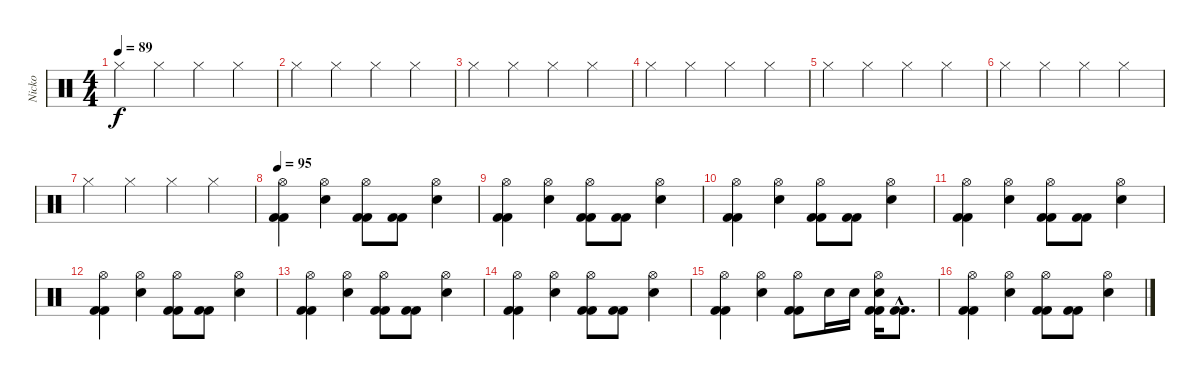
\track ("Nicko " "Nicko ") {instrument percussion}
\staff {score}
\articulation defaults
\ts (4 4)
\tempo 89
\clef neutral
\ks c "Hi-Hat (closed)".4{dy f} "Hi-Hat (closed)".4 "Hi-Hat (closed)".4 "Hi-Hat (closed)".4
|
"Hi-Hat (closed)".4 "Hi-Hat (closed)".4 "Hi-Hat (closed)".4 "Hi-Hat (closed)".4 |
"Hi-Hat (closed)".4 "Hi-Hat (closed)".4 "Hi-Hat (closed)".4 "Hi-Hat (closed)".4 |
"Hi-Hat (closed)".4 "Hi-Hat (closed)".4 "Hi-Hat (closed)".4 "Hi-Hat (closed)".4 |
"Hi-Hat (closed)".4 "Hi-Hat (closed)".4 "Hi-Hat (closed)".4 "Hi-Hat (closed)".4 |
"Hi-Hat (closed)".4 "Hi-Hat (closed)".4 "Hi-Hat (closed)".4 "Hi-Hat (closed)".4 |
"Hi-Hat (closed)".4 "Hi-Hat (closed)".4 "Hi-Hat (closed)".4 "Hi-Hat (closed)".4 |
\tempo 95
("Hi-Hat (open)" "Kick (hit) 2" "Kick (hit) 2").4 ("Hi-Hat (open)" "Snare (hit) 2").4 ("Hi-Hat (open)" "Kick (hit) 2" "Kick (hit) 2").8 ("Kick (hit) 2" "Kick (hit) 2").8 ("Hi-Hat (open)" "Snare (hit) 2").4 |
("Hi-Hat (open)" "Kick (hit) 2" "Kick (hit) 2").4 ("Hi-Hat (open)" "Snare (hit) 2").4 ("Hi-Hat (open)" "Kick (hit) 2" "Kick (hit) 2").8 ("Kick (hit) 2" "Kick (hit) 2").8 ("Hi-Hat (open)" "Snare (hit) 2").4 |
("Hi-Hat (open)" "Kick (hit) 2" "Kick (hit) 2").4 ("Hi-Hat (open)" "Snare (hit) 2").4 ("Hi-Hat (open)" "Kick (hit) 2" "Kick (hit) 2").8 ("Kick (hit) 2" "Kick (hit) 2").8 ("Hi-Hat (open)" "Snare (hit) 2").4 |
("Hi-Hat (open)" "Kick (hit) 2" "Kick (hit) 2").4 ("Hi-Hat (open)" "Snare (hit) 2").4 ("Hi-Hat (open)" "Kick (hit) 2" "Kick (hit) 2").8 ("Kick (hit) 2" "Kick (hit) 2").8 ("Hi-Hat (open)" "Snare (hit) 2").4 |
("Hi-Hat (open)" "Kick (hit) 2" "Kick (hit) 2").4 ("Hi-Hat (open)" "Snare (hit) 2").4 ("Hi-Hat (open)" "Kick (hit) 2" "Kick (hit) 2").8 ("Kick (hit) 2" "Kick (hit) 2").8 ("Hi-Hat (open)" "Snare (hit) 2").4 |
("Hi-Hat (open)" "Kick (hit) 2" "Kick (hit) 2").4 ("Hi-Hat (open)" "Snare (hit) 2").4 ("Hi-Hat (open)" "Kick (hit) 2" "Kick (hit) 2").8 ("Kick (hit) 2" "Kick (hit) 2").8 ("Hi-Hat (open)" "Snare (hit) 2").4 |
("Hi-Hat (open)" "Kick (hit) 2" "Kick (hit) 2").4 ("Hi-Hat (open)" "Snare (hit) 2").4 ("Hi-Hat (open)" "Kick (hit) 2" "Kick (hit) 2").8 ("Kick (hit) 2" "Kick (hit) 2").8 ("Hi-Hat (open)" "Snare (hit) 2").4 |
("Hi-Hat (open)" "Kick (hit) 2" "Kick (hit) 2").4 ("Hi-Hat (open)" "Snare (hit) 2").4 ("Hi-Hat (open)" "Kick (hit) 2" "Kick (hit) 2").8 "Snare (hit) 2".16 "Snare (hit) 2".16 ("Hi-Hat (open)" "Snare (hit) 2" "Kick (hit) 2" "Kick (hit) 2").16 ("Kick (hit) 2"{hac} "Kick (hit) 2"{hac}).8{d} |
("Hi-Hat (open)" "Kick (hit) 2" "Kick (hit) 2").4 ("Hi-Hat (open)" "Snare (hit) 2").4 ("Hi-Hat (open)" "Kick (hit) 2" "Kick (hit) 2").8 ("Kick (hit) 2" "Kick (hit) 2").8 ("Hi-Hat (open)" "Snare (hit) 2").4
